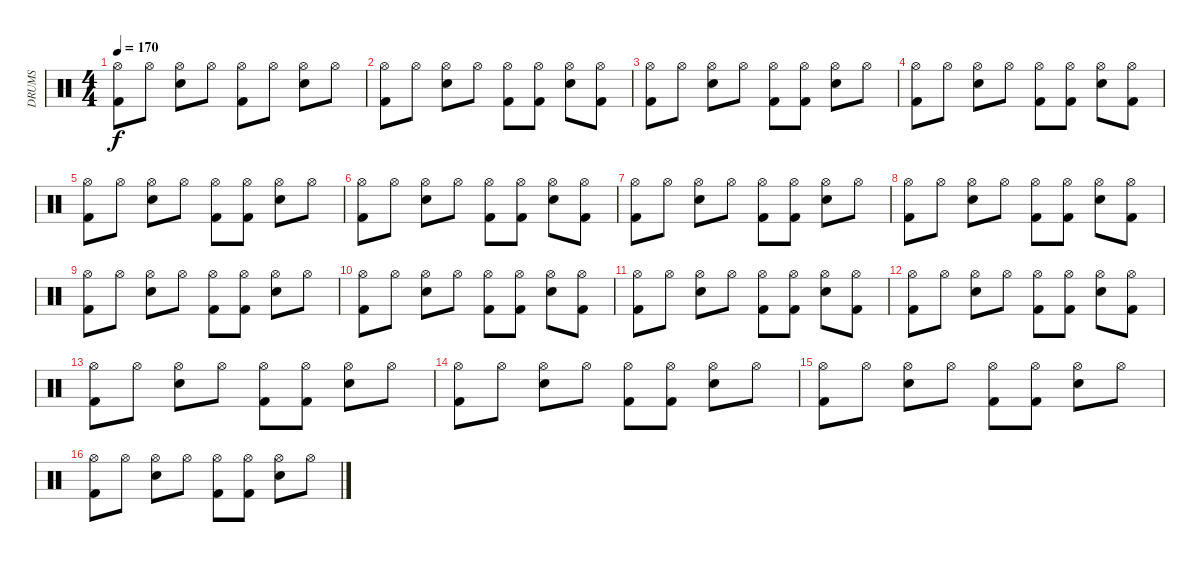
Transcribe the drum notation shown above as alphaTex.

\track ("DRUMS" "DRUMS") {instrument percussion}
\staff {score}
\articulation defaults
\ts (4 4)
\tempo 170
\clef neutral
\ks c
("Hi-Hat (open)" "Kick (hit) 2").8{dy f} "Hi-Hat (open)".8 ("Hi-Hat (open)" "Snare (hit) 2").8 "Hi-Hat (open)".8 ("Hi-Hat (open)" "Kick (hit) 2").8 "Hi-Hat (open)".8 ("Hi-Hat (open)" "Snare (hit) 2").8 "Hi-Hat (open)".8 |
("Hi-Hat (open)" "Kick (hit) 2").8 "Hi-Hat (open)".8 ("Hi-Hat (open)" "Snare (hit) 2").8 "Hi-Hat (open)".8 ("Hi-Hat (open)" "Kick (hit) 2").8 ("Hi-Hat (open)" "Kick (hit) 2").8 ("Hi-Hat (open)" "Snare (hit) 2").8 ("Hi-Hat (open)" "Kick (hit) 2").8 |
("Hi-Hat (open)" "Kick (hit) 2").8 "Hi-Hat (open)".8 ("Hi-Hat (open)" "Snare (hit) 2").8 "Hi-Hat (open)".8 ("Hi-Hat (open)" "Kick (hit) 2").8 ("Hi-Hat (open)" "Kick (hit) 2").8 ("Hi-Hat (open)" "Snare (hit) 2").8 "Hi-Hat (open)".8 |
("Hi-Hat (open)" "Kick (hit) 2").8 "Hi-Hat (open)".8 ("Hi-Hat (open)" "Snare (hit) 2").8 "Hi-Hat (open)".8 ("Hi-Hat (open)" "Kick (hit) 2").8 ("Hi-Hat (open)" "Kick (hit) 2").8 ("Hi-Hat (open)" "Snare (hit) 2").8 ("Hi-Hat (open)" "Kick (hit) 2").8 |
("Hi-Hat (open)" "Kick (hit) 2").8 "Hi-Hat (open)".8 ("Hi-Hat (open)" "Snare (hit) 2").8 "Hi-Hat (open)".8 ("Hi-Hat (open)" "Kick (hit) 2").8 ("Hi-Hat (open)" "Kick (hit) 2").8 ("Hi-Hat (open)" "Snare (hit) 2").8 "Hi-Hat (open)".8 |
("Hi-Hat (open)" "Kick (hit) 2").8 "Hi-Hat (open)".8 ("Hi-Hat (open)" "Snare (hit) 2").8 "Hi-Hat (open)".8 ("Hi-Hat (open)" "Kick (hit) 2").8 ("Hi-Hat (open)" "Kick (hit) 2").8 ("Hi-Hat (open)" "Snare (hit) 2").8 ("Hi-Hat (open)" "Kick (hit) 2").8 |
("Hi-Hat (open)" "Kick (hit) 2").8 "Hi-Hat (open)".8 ("Hi-Hat (open)" "Snare (hit) 2").8 "Hi-Hat (open)".8 ("Hi-Hat (open)" "Kick (hit) 2").8 ("Hi-Hat (open)" "Kick (hit) 2").8 ("Hi-Hat (open)" "Snare (hit) 2").8 "Hi-Hat (open)".8 |
("Hi-Hat (open)" "Kick (hit) 2").8 "Hi-Hat (open)".8 ("Hi-Hat (open)" "Snare (hit) 2").8 "Hi-Hat (open)".8 ("Hi-Hat (open)" "Kick (hit) 2").8 ("Hi-Hat (open)" "Kick (hit) 2").8 ("Hi-Hat (open)" "Snare (hit) 2").8 ("Hi-Hat (open)" "Kick (hit) 2").8 |
("Hi-Hat (open)" "Kick (hit) 2").8 "Hi-Hat (open)".8 ("Hi-Hat (open)" "Snare (hit) 2").8 "Hi-Hat (open)".8 ("Hi-Hat (open)" "Kick (hit) 2").8 ("Hi-Hat (open)" "Kick (hit) 2").8 ("Hi-Hat (open)" "Snare (hit) 2").8 "Hi-Hat (open)".8 |
("Hi-Hat (open)" "Kick (hit) 2").8 "Hi-Hat (open)".8 ("Hi-Hat (open)" "Snare (hit) 2").8 "Hi-Hat (open)".8 ("Hi-Hat (open)" "Kick (hit) 2").8 ("Hi-Hat (open)" "Kick (hit) 2").8 ("Hi-Hat (open)" "Snare (hit) 2").8 ("Hi-Hat (open)" "Kick (hit) 2").8 |
("Hi-Hat (open)" "Kick (hit) 2").8 "Hi-Hat (open)".8 ("Hi-Hat (open)" "Snare (hit) 2").8 "Hi-Hat (open)".8 ("Hi-Hat (open)" "Kick (hit) 2").8 ("Hi-Hat (open)" "Kick (hit) 2").8 ("Hi-Hat (open)" "Snare (hit) 2").8 ("Hi-Hat (open)" "Kick (hit) 2").8 |
("Hi-Hat (open)" "Kick (hit) 2").8 "Hi-Hat (open)".8 ("Hi-Hat (open)" "Snare (hit) 2").8 "Hi-Hat (open)".8 ("Hi-Hat (open)" "Kick (hit) 2").8 ("Hi-Hat (open)" "Kick (hit) 2").8 ("Hi-Hat (open)" "Snare (hit) 2").8 ("Hi-Hat (open)" "Kick (hit) 2").8 |
("Hi-Hat (open)" "Kick (hit) 2").8 "Hi-Hat (open)".8 ("Hi-Hat (open)" "Snare (hit) 2").8 "Hi-Hat (open)".8 ("Hi-Hat (open)" "Kick (hit) 2").8 ("Hi-Hat (open)" "Kick (hit) 2").8 ("Hi-Hat (open)" "Snare (hit) 2").8 "Hi-Hat (open)".8 |
("Hi-Hat (open)" "Kick (hit) 2").8 "Hi-Hat (open)".8 ("Hi-Hat (open)" "Snare (hit) 2").8 "Hi-Hat (open)".8 ("Hi-Hat (open)" "Kick (hit) 2").8 ("Hi-Hat (open)" "Kick (hit) 2").8 ("Hi-Hat (open)" "Snare (hit) 2").8 "Hi-Hat (open)".8 |
("Hi-Hat (open)" "Kick (hit) 2").8 "Hi-Hat (open)".8 ("Hi-Hat (open)" "Snare (hit) 2").8 "Hi-Hat (open)".8 ("Hi-Hat (open)" "Kick (hit) 2").8 ("Hi-Hat (open)" "Kick (hit) 2").8 ("Hi-Hat (open)" "Snare (hit) 2").8 "Hi-Hat (open)".8 |
("Hi-Hat (open)" "Kick (hit) 2").8 "Hi-Hat (open)".8 ("Hi-Hat (open)" "Snare (hit) 2").8 "Hi-Hat (open)".8 ("Hi-Hat (open)" "Kick (hit) 2").8 ("Hi-Hat (open)" "Kick (hit) 2").8 ("Hi-Hat (open)" "Snare (hit) 2").8 "Hi-Hat (open)".8
